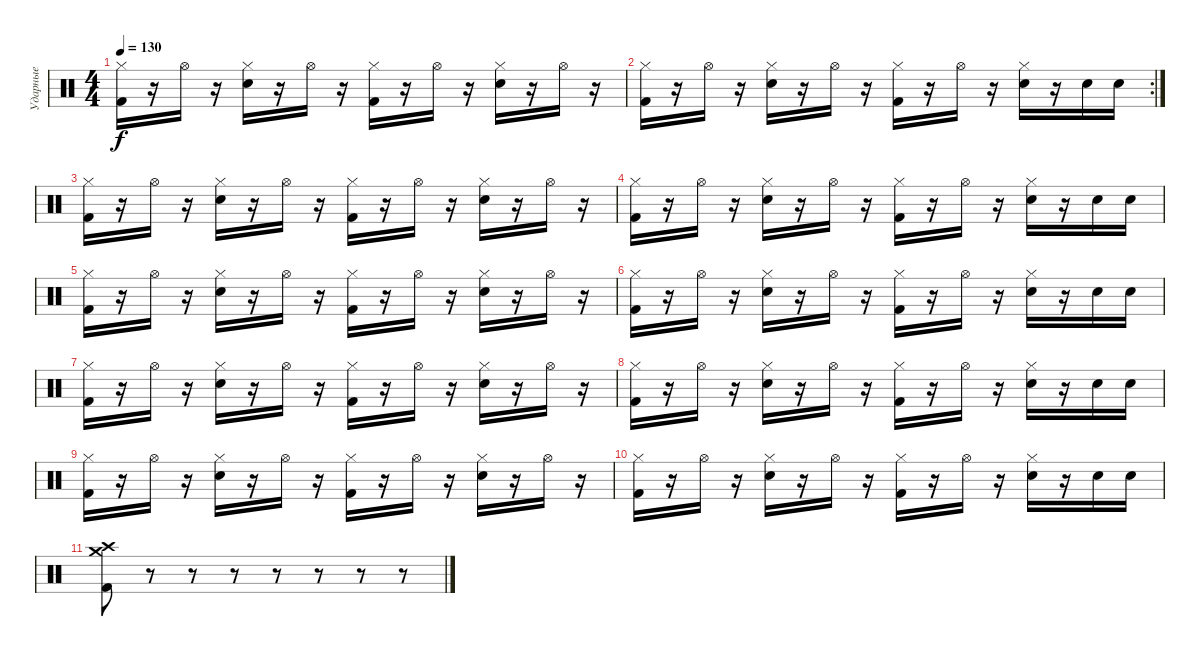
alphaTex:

\track ("Ударные" "Ударные") {instrument percussion}
\staff {score}
\articulation defaults
\ts (4 4)
\tempo 130
\clef neutral
\ks c
("Hi-Hat (closed)" "Kick (hit) 2").16{dy f} r.16 "Hi-Hat (open)".16 r.16 ("Hi-Hat (closed)" "Electric Snare (hit)").16 r.16 "Hi-Hat (open)".16 r.16 ("Hi-Hat (closed)" "Kick (hit) 2").16 r.16 "Hi-Hat (open)".16 r.16 ("Hi-Hat (closed)" "Electric Snare (hit)").16 r.16 "Hi-Hat (open)".16 r.16 |
\rc 2
("Hi-Hat (closed)" "Kick (hit) 2").16 r.16 "Hi-Hat (open)".16 r.16 ("Hi-Hat (closed)" "Electric Snare (hit)").16 r.16 "Hi-Hat (open)".16 r.16 ("Hi-Hat (closed)" "Kick (hit) 2").16 r.16 "Hi-Hat (open)".16 r.16 ("Hi-Hat (closed)" "Electric Snare (hit)").16 r.16 "Electric Snare (hit)".16 "Electric Snare (hit)".16 |
("Hi-Hat (closed)" "Kick (hit) 2").16 r.16 "Hi-Hat (open)".16 r.16 ("Hi-Hat (closed)" "Electric Snare (hit)").16 r.16 "Hi-Hat (open)".16 r.16 ("Hi-Hat (closed)" "Kick (hit) 2").16 r.16 "Hi-Hat (open)".16 r.16 ("Hi-Hat (closed)" "Electric Snare (hit)").16 r.16 "Hi-Hat (open)".16 r.16 |
("Hi-Hat (closed)" "Kick (hit) 2").16 r.16 "Hi-Hat (open)".16 r.16 ("Hi-Hat (closed)" "Electric Snare (hit)").16 r.16 "Hi-Hat (open)".16 r.16 ("Hi-Hat (closed)" "Kick (hit) 2").16 r.16 "Hi-Hat (open)".16 r.16 ("Hi-Hat (closed)" "Electric Snare (hit)").16 r.16 "Electric Snare (hit)".16 "Electric Snare (hit)".16 |
("Hi-Hat (closed)" "Kick (hit) 2").16 r.16 "Hi-Hat (open)".16 r.16 ("Hi-Hat (closed)" "Electric Snare (hit)").16 r.16 "Hi-Hat (open)".16 r.16 ("Hi-Hat (closed)" "Kick (hit) 2").16 r.16 "Hi-Hat (open)".16 r.16 ("Hi-Hat (closed)" "Electric Snare (hit)").16 r.16 "Hi-Hat (open)".16 r.16 |
("Hi-Hat (closed)" "Kick (hit) 2").16 r.16 "Hi-Hat (open)".16 r.16 ("Hi-Hat (closed)" "Electric Snare (hit)").16 r.16 "Hi-Hat (open)".16 r.16 ("Hi-Hat (closed)" "Kick (hit) 2").16 r.16 "Hi-Hat (open)".16 r.16 ("Hi-Hat (closed)" "Electric Snare (hit)").16 r.16 "Electric Snare (hit)".16 "Electric Snare (hit)".16 |
("Hi-Hat (closed)" "Kick (hit) 2").16 r.16 "Hi-Hat (open)".16 r.16 ("Hi-Hat (closed)" "Electric Snare (hit)").16 r.16 "Hi-Hat (open)".16 r.16 ("Hi-Hat (closed)" "Kick (hit) 2").16 r.16 "Hi-Hat (open)".16 r.16 ("Hi-Hat (closed)" "Electric Snare (hit)").16 r.16 "Hi-Hat (open)".16 r.16 |
("Hi-Hat (closed)" "Kick (hit) 2").16 r.16 "Hi-Hat (open)".16 r.16 ("Hi-Hat (closed)" "Electric Snare (hit)").16 r.16 "Hi-Hat (open)".16 r.16 ("Hi-Hat (closed)" "Kick (hit) 2").16 r.16 "Hi-Hat (open)".16 r.16 ("Hi-Hat (closed)" "Electric Snare (hit)").16 r.16 "Electric Snare (hit)".16 "Electric Snare (hit)".16 |
("Hi-Hat (closed)" "Kick (hit) 2").16 r.16 "Hi-Hat (open)".16 r.16 ("Hi-Hat (closed)" "Electric Snare (hit)").16 r.16 "Hi-Hat (open)".16 r.16 ("Hi-Hat (closed)" "Kick (hit) 2").16 r.16 "Hi-Hat (open)".16 r.16 ("Hi-Hat (closed)" "Electric Snare (hit)").16 r.16 "Hi-Hat (open)".16 r.16 |
("Hi-Hat (closed)" "Kick (hit) 2").16 r.16 "Hi-Hat (open)".16 r.16 ("Hi-Hat (closed)" "Electric Snare (hit)").16 r.16 "Hi-Hat (open)".16 r.16 ("Hi-Hat (closed)" "Kick (hit) 2").16 r.16 "Hi-Hat (open)".16 r.16 ("Hi-Hat (closed)" "Electric Snare (hit)").16 r.16 "Electric Snare (hit)".16 "Electric Snare (hit)".16 |
("Crash high (hit)" "Crash medium (hit)" "Kick (hit) 2").8 r.8 r.8 r.8 r.8 r.8 r.8 r.8
